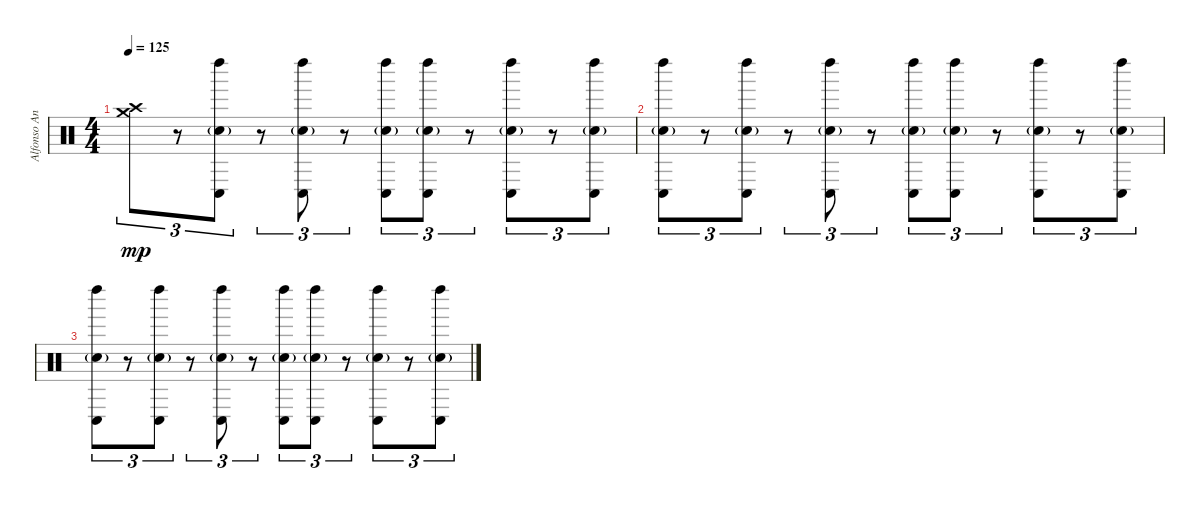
\track ("Alfonso Andre" "Alfonso An") {instrument percussion}
\staff {score}
\articulation defaults
\ts (4 4)
\tempo 125
\clef neutral
\ks c
("Crash medium (hit)" "Crash high (hit)").8{tu (3 2) dy mp volume 0} r.8{tu (3 2)} ("Left Maraca (hit)" "Conga low (hit)" "Electric Snare (hit)"{g}).8{tu (3 2)} r.8{tu (3 2)} ("Left Maraca (hit)" "Conga low (hit)" "Electric Snare (hit)"{g}).8{tu (3 2)} r.8{tu (3 2)} ("Left Maraca (hit)" "Conga low (hit)" "Electric Snare (hit)"{g}).8{tu (3 2)} ("Left Maraca (hit)" "Conga low (hit)" "Electric Snare (hit)"{g}).8{tu (3 2)} r.8{tu (3 2)} ("Left Maraca (hit)" "Conga low (hit)" "Electric Snare (hit)"{g}).8{tu (3 2)} r.8{tu (3 2)} ("Left Maraca (hit)" "Conga low (hit)" "Electric Snare (hit)"{g}).8{tu (3 2)} |
("Left Maraca (hit)" "Conga low (hit)" "Electric Snare (hit)"{g}).8{tu (3 2)} r.8{tu (3 2)} ("Left Maraca (hit)" "Conga low (hit)" "Electric Snare (hit)"{g}).8{tu (3 2)} r.8{tu (3 2)} ("Left Maraca (hit)" "Conga low (hit)" "Electric Snare (hit)"{g}).8{tu (3 2)} r.8{tu (3 2)} ("Left Maraca (hit)" "Conga low (hit)" "Electric Snare (hit)"{g}).8{tu (3 2)} ("Left Maraca (hit)" "Conga low (hit)" "Electric Snare (hit)"{g}).8{tu (3 2)} r.8{tu (3 2)} ("Left Maraca (hit)" "Conga low (hit)" "Electric Snare (hit)"{g}).8{tu (3 2)} r.8{tu (3 2)} ("Left Maraca (hit)" "Conga low (hit)" "Electric Snare (hit)"{g}).8{tu (3 2)} |
("Left Maraca (hit)" "Conga low (hit)" "Electric Snare (hit)"{g}).8{tu (3 2)} r.8{tu (3 2)} ("Left Maraca (hit)" "Conga low (hit)" "Electric Snare (hit)"{g}).8{tu (3 2)} r.8{tu (3 2)} ("Left Maraca (hit)" "Conga low (hit)" "Electric Snare (hit)"{g}).8{tu (3 2)} r.8{tu (3 2)} ("Left Maraca (hit)" "Conga low (hit)" "Electric Snare (hit)"{g}).8{tu (3 2)} ("Left Maraca (hit)" "Conga low (hit)" "Electric Snare (hit)"{g}).8{tu (3 2)} r.8{tu (3 2)} ("Left Maraca (hit)" "Conga low (hit)" "Electric Snare (hit)"{g}).8{tu (3 2)} r.8{tu (3 2)} ("Left Maraca (hit)" "Conga low (hit)" "Electric Snare (hit)"{g}).8{tu (3 2)}
